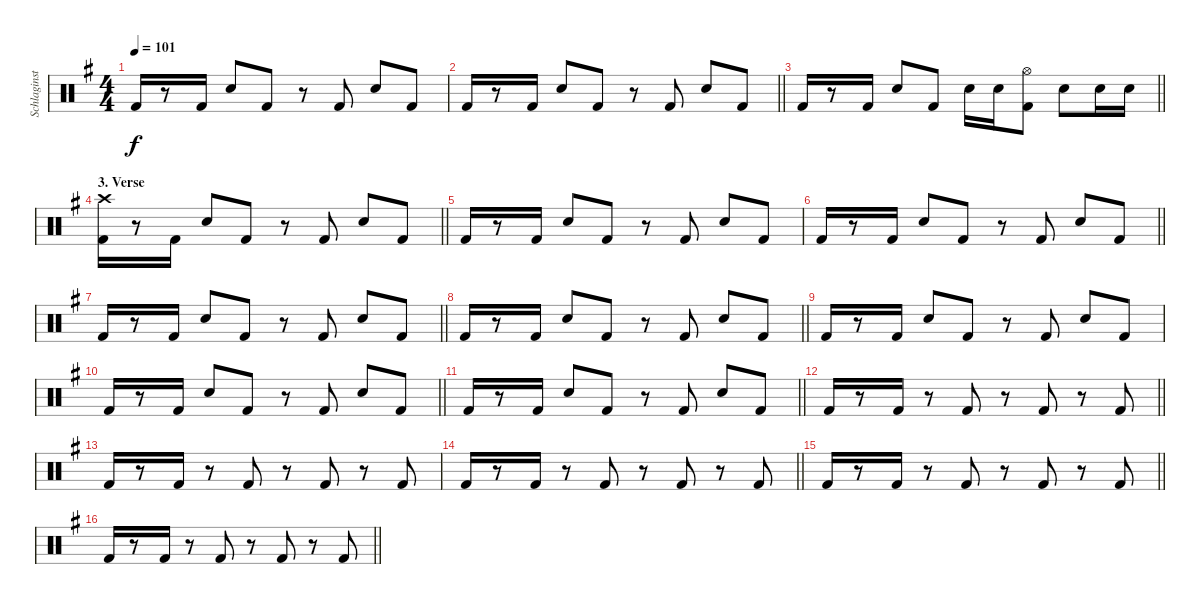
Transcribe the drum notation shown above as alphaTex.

\track ("Schlaginstrumente - Auswahl" "Schlaginst") {instrument percussion}
\staff {score}
\articulation defaults
\ts (4 4)
\tempo 101
\clef neutral
\ks g "Kick (hit) 2".16{dy f}
r.8 "Kick (hit) 2".16 "Electric Snare (hit)".8 "Kick (hit) 2".8 r.8 "Kick (hit) 2".8 "Electric Snare (hit)".8 "Kick (hit) 2".8 |
\barLineRight lightlight "Kick (hit) 2".16
r.8 "Kick (hit) 2".16 "Electric Snare (hit)".8 "Kick (hit) 2".8 r.8 "Kick (hit) 2".8 "Electric Snare (hit)".8 "Kick (hit) 2".8 |
\barLineRight lightlight "Kick (hit) 2".16
r.8 "Kick (hit) 2".16 "Electric Snare (hit)".8 "Kick (hit) 2".8 "Electric Snare (hit)".16 "Electric Snare (hit)".16 ("Hi-Hat (open)" "Kick (hit) 2").8 "Electric Snare (hit)".8 "Electric Snare (hit)".16 "Electric Snare (hit)".16 |
\section ("" "3. Verse")
\barLineRight lightlight
("Crash high (hit)" "Kick (hit) 2").16 r.8 "Kick (hit) 2".16 "Electric Snare (hit)".8 "Kick (hit) 2".8 r.8 "Kick (hit) 2".8 "Electric Snare (hit)".8 "Kick (hit) 2".8 |
"Kick (hit) 2".16 r.8 "Kick (hit) 2".16 "Electric Snare (hit)".8 "Kick (hit) 2".8 r.8 "Kick (hit) 2".8 "Electric Snare (hit)".8 "Kick (hit) 2".8 |
\barLineRight lightlight "Kick (hit) 2".16
r.8 "Kick (hit) 2".16 "Electric Snare (hit)".8 "Kick (hit) 2".8 r.8 "Kick (hit) 2".8 "Electric Snare (hit)".8 "Kick (hit) 2".8 |
\barLineRight lightlight "Kick (hit) 2".16
r.8 "Kick (hit) 2".16 "Electric Snare (hit)".8 "Kick (hit) 2".8 r.8 "Kick (hit) 2".8 "Electric Snare (hit)".8 "Kick (hit) 2".8 |
\barLineRight lightlight "Kick (hit) 2".16
r.8 "Kick (hit) 2".16 "Electric Snare (hit)".8 "Kick (hit) 2".8 r.8 "Kick (hit) 2".8 "Electric Snare (hit)".8 "Kick (hit) 2".8 |
"Kick (hit) 2".16 r.8 "Kick (hit) 2".16 "Electric Snare (hit)".8 "Kick (hit) 2".8 r.8 "Kick (hit) 2".8 "Electric Snare (hit)".8 "Kick (hit) 2".8 |
\barLineRight lightlight "Kick (hit) 2".16
r.8 "Kick (hit) 2".16 "Electric Snare (hit)".8 "Kick (hit) 2".8 r.8 "Kick (hit) 2".8 "Electric Snare (hit)".8 "Kick (hit) 2".8 |
\barLineRight lightlight "Kick (hit) 2".16
r.8 "Kick (hit) 2".16 "Electric Snare (hit)".8 "Kick (hit) 2".8 r.8 "Kick (hit) 2".8 "Electric Snare (hit)".8 "Kick (hit) 2".8 |
\barLineRight lightlight "Kick (hit) 2".16
r.8 "Kick (hit) 2".16 r.8 "Kick (hit) 2".8 r.8 "Kick (hit) 2".8 r.8 "Kick (hit) 2".8 |
"Kick (hit) 2".16 r.8 "Kick (hit) 2".16 r.8 "Kick (hit) 2".8 r.8 "Kick (hit) 2".8 r.8 "Kick (hit) 2".8 |
\barLineRight lightlight "Kick (hit) 2".16
r.8 "Kick (hit) 2".16 r.8 "Kick (hit) 2".8 r.8 "Kick (hit) 2".8 r.8 "Kick (hit) 2".8 |
\barLineRight lightlight "Kick (hit) 2".16
r.8 "Kick (hit) 2".16 r.8 "Kick (hit) 2".8 r.8 "Kick (hit) 2".8 r.8 "Kick (hit) 2".8 |
\barLineRight lightlight "Kick (hit) 2".16
r.8 "Kick (hit) 2".16 r.8 "Kick (hit) 2".8 r.8 "Kick (hit) 2".8 r.8 "Kick (hit) 2".8
